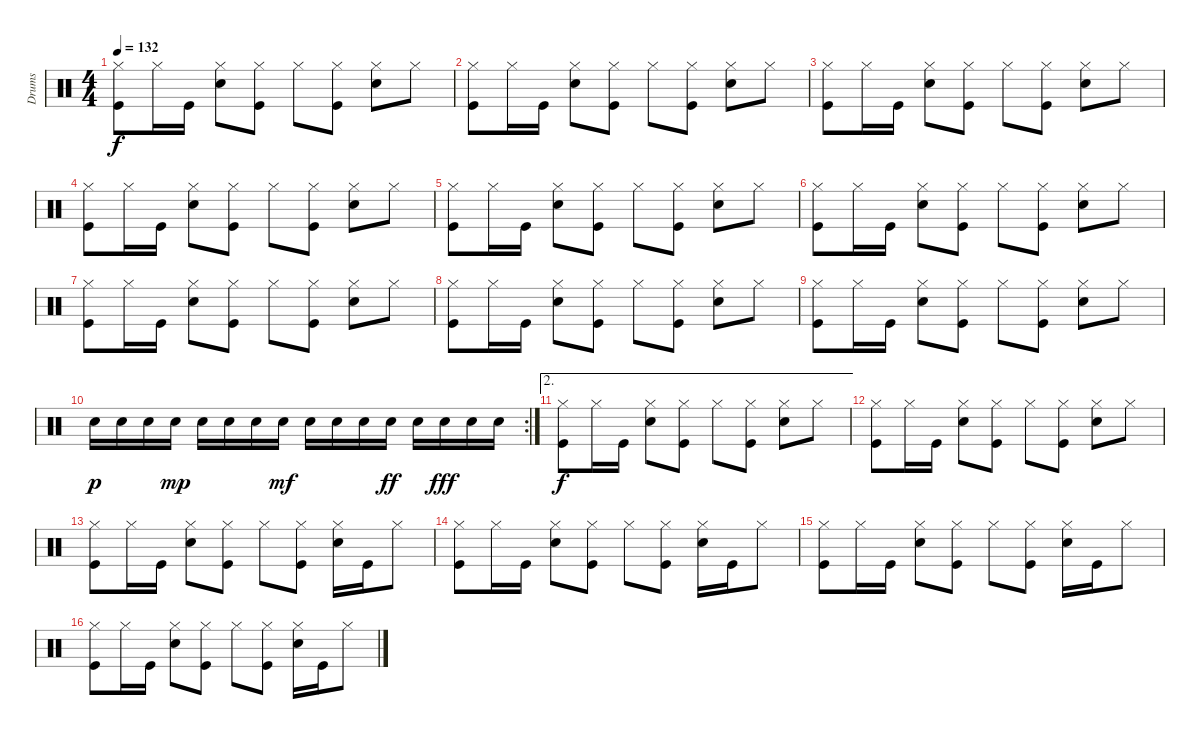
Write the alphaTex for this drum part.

\track ("Drums" "Drums") {instrument percussion}
\staff {score}
\articulation defaults
\ts (4 4)
\tempo 132
\clef neutral
\ks c
("Hi-Hat (closed)" "Kick (hit)").8{dy f} "Hi-Hat (closed)".16 "Kick (hit)".16 ("Hi-Hat (closed)" "Electric Snare (hit)").8 ("Hi-Hat (closed)" "Kick (hit)").8 "Hi-Hat (closed)".8 ("Hi-Hat (closed)" "Kick (hit)").8 ("Hi-Hat (closed)" "Electric Snare (hit)").8 "Hi-Hat (closed)".8 |
("Hi-Hat (closed)" "Kick (hit)").8 "Hi-Hat (closed)".16 "Kick (hit)".16 ("Hi-Hat (closed)" "Electric Snare (hit)").8 ("Hi-Hat (closed)" "Kick (hit)").8 "Hi-Hat (closed)".8 ("Hi-Hat (closed)" "Kick (hit)").8 ("Hi-Hat (closed)" "Electric Snare (hit)").8 "Hi-Hat (closed)".8 |
("Hi-Hat (closed)" "Kick (hit)").8 "Hi-Hat (closed)".16 "Kick (hit)".16 ("Hi-Hat (closed)" "Electric Snare (hit)").8 ("Hi-Hat (closed)" "Kick (hit)").8 "Hi-Hat (closed)".8 ("Hi-Hat (closed)" "Kick (hit)").8 ("Hi-Hat (closed)" "Electric Snare (hit)").8 "Hi-Hat (closed)".8 |
("Hi-Hat (closed)" "Kick (hit)").8 "Hi-Hat (closed)".16 "Kick (hit)".16 ("Hi-Hat (closed)" "Electric Snare (hit)").8 ("Hi-Hat (closed)" "Kick (hit)").8 "Hi-Hat (closed)".8 ("Hi-Hat (closed)" "Kick (hit)").8 ("Hi-Hat (closed)" "Electric Snare (hit)").8 "Hi-Hat (closed)".8 |
("Hi-Hat (closed)" "Kick (hit)").8 "Hi-Hat (closed)".16 "Kick (hit)".16 ("Hi-Hat (closed)" "Electric Snare (hit)").8 ("Hi-Hat (closed)" "Kick (hit)").8 "Hi-Hat (closed)".8 ("Hi-Hat (closed)" "Kick (hit)").8 ("Hi-Hat (closed)" "Electric Snare (hit)").8 "Hi-Hat (closed)".8 |
("Hi-Hat (closed)" "Kick (hit)").8 "Hi-Hat (closed)".16 "Kick (hit)".16 ("Hi-Hat (closed)" "Electric Snare (hit)").8 ("Hi-Hat (closed)" "Kick (hit)").8 "Hi-Hat (closed)".8 ("Hi-Hat (closed)" "Kick (hit)").8 ("Hi-Hat (closed)" "Electric Snare (hit)").8 "Hi-Hat (closed)".8 |
("Hi-Hat (closed)" "Kick (hit)").8 "Hi-Hat (closed)".16 "Kick (hit)".16 ("Hi-Hat (closed)" "Electric Snare (hit)").8 ("Hi-Hat (closed)" "Kick (hit)").8 "Hi-Hat (closed)".8 ("Hi-Hat (closed)" "Kick (hit)").8 ("Hi-Hat (closed)" "Electric Snare (hit)").8 "Hi-Hat (closed)".8 |
("Hi-Hat (closed)" "Kick (hit)").8 "Hi-Hat (closed)".16 "Kick (hit)".16 ("Hi-Hat (closed)" "Electric Snare (hit)").8 ("Hi-Hat (closed)" "Kick (hit)").8 "Hi-Hat (closed)".8 ("Hi-Hat (closed)" "Kick (hit)").8 ("Hi-Hat (closed)" "Electric Snare (hit)").8 "Hi-Hat (closed)".8 |
("Hi-Hat (closed)" "Kick (hit)").8 "Hi-Hat (closed)".16 "Kick (hit)".16 ("Hi-Hat (closed)" "Electric Snare (hit)").8 ("Hi-Hat (closed)" "Kick (hit)").8 "Hi-Hat (closed)".8 ("Hi-Hat (closed)" "Kick (hit)").8 ("Hi-Hat (closed)" "Electric Snare (hit)").8 "Hi-Hat (closed)".8 |
\rc 2 "Electric Snare (hit)".16{dy p} "Electric Snare (hit)".16 "Electric Snare (hit)".16 "Electric Snare (hit)".16{dy mp} "Electric Snare (hit)".16 "Electric Snare (hit)".16 "Electric Snare (hit)".16 "Electric Snare (hit)".16{dy mf} "Electric Snare (hit)".16 "Electric Snare (hit)".16 "Electric Snare (hit)".16 "Electric Snare (hit)".16{dy ff} "Electric Snare (hit)".16 "Electric Snare (hit)".16{dy fff} "Electric Snare (hit)".16 "Electric Snare (hit)".16
|
\ae 2
("Hi-Hat (closed)" "Kick (hit)").8{dy f} "Hi-Hat (closed)".16 "Kick (hit)".16 ("Hi-Hat (closed)" "Electric Snare (hit)").8 ("Hi-Hat (closed)" "Kick (hit)").8 "Hi-Hat (closed)".8 ("Hi-Hat (closed)" "Kick (hit)").8 ("Hi-Hat (closed)" "Electric Snare (hit)").8 "Hi-Hat (closed)".8 |
("Hi-Hat (closed)" "Kick (hit)").8 "Hi-Hat (closed)".16 "Kick (hit)".16 ("Hi-Hat (closed)" "Electric Snare (hit)").8 ("Hi-Hat (closed)" "Kick (hit)").8 "Hi-Hat (closed)".8 ("Hi-Hat (closed)" "Kick (hit)").8 ("Hi-Hat (closed)" "Electric Snare (hit)").8 "Hi-Hat (closed)".8 |
("Hi-Hat (closed)" "Kick (hit)").8 "Hi-Hat (closed)".16 "Kick (hit)".16 ("Hi-Hat (closed)" "Electric Snare (hit)").8 ("Hi-Hat (closed)" "Kick (hit)").8 "Hi-Hat (closed)".8 ("Hi-Hat (closed)" "Kick (hit)").8 ("Hi-Hat (closed)" "Electric Snare (hit)").16 "Kick (hit)".16 "Hi-Hat (closed)".8 |
("Hi-Hat (closed)" "Kick (hit)").8 "Hi-Hat (closed)".16 "Kick (hit)".16 ("Hi-Hat (closed)" "Electric Snare (hit)").8 ("Hi-Hat (closed)" "Kick (hit)").8 "Hi-Hat (closed)".8 ("Hi-Hat (closed)" "Kick (hit)").8 ("Hi-Hat (closed)" "Electric Snare (hit)").16 "Kick (hit)".16 "Hi-Hat (closed)".8 |
("Hi-Hat (closed)" "Kick (hit)").8 "Hi-Hat (closed)".16 "Kick (hit)".16 ("Hi-Hat (closed)" "Electric Snare (hit)").8 ("Hi-Hat (closed)" "Kick (hit)").8 "Hi-Hat (closed)".8 ("Hi-Hat (closed)" "Kick (hit)").8 ("Hi-Hat (closed)" "Electric Snare (hit)").16 "Kick (hit)".16 "Hi-Hat (closed)".8 |
("Hi-Hat (closed)" "Kick (hit)").8 "Hi-Hat (closed)".16 "Kick (hit)".16 ("Hi-Hat (closed)" "Electric Snare (hit)").8 ("Hi-Hat (closed)" "Kick (hit)").8 "Hi-Hat (closed)".8 ("Hi-Hat (closed)" "Kick (hit)").8 ("Hi-Hat (closed)" "Electric Snare (hit)").16 "Kick (hit)".16 "Hi-Hat (closed)".8
